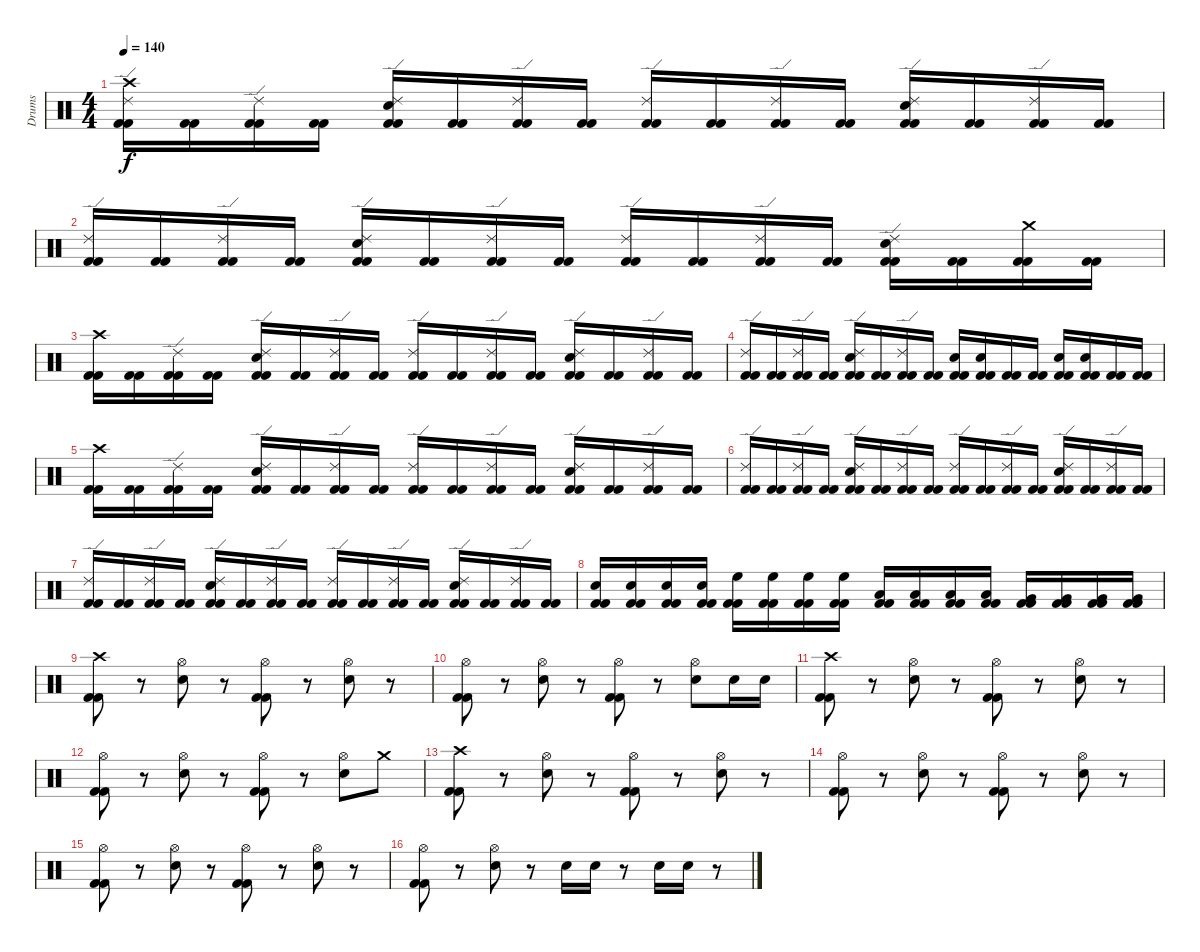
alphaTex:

\track ("Drums" "Drums") {instrument percussion}
\staff {score}
\articulation defaults
\ts (4 4)
\tempo 140
\clef neutral
\ks c
("Crash high (hit)" "Ride (edge) 2" "Kick (hit) 2" "Kick (hit) 2").16{dy f} ("Kick (hit) 2" "Kick (hit) 2").16 ("Ride (edge) 2" "Kick (hit) 2" "Kick (hit) 2").16 ("Kick (hit) 2" "Kick (hit) 2").16 ("Ride (edge) 2" "Electric Snare (hit)" "Kick (hit) 2" "Kick (hit) 2").16 ("Kick (hit) 2" "Kick (hit) 2").16 ("Ride (edge) 2" "Kick (hit) 2" "Kick (hit) 2").16 ("Kick (hit) 2" "Kick (hit) 2").16 ("Ride (edge) 2" "Kick (hit) 2" "Kick (hit) 2").16 ("Kick (hit) 2" "Kick (hit) 2").16 ("Ride (edge) 2" "Kick (hit) 2" "Kick (hit) 2").16 ("Kick (hit) 2" "Kick (hit) 2").16 ("Ride (edge) 2" "Electric Snare (hit)" "Kick (hit) 2" "Kick (hit) 2").16 ("Kick (hit) 2" "Kick (hit) 2").16 ("Ride (edge) 2" "Kick (hit) 2" "Kick (hit) 2").16 ("Kick (hit) 2" "Kick (hit) 2").16 |
("Ride (edge) 2" "Kick (hit) 2" "Kick (hit) 2").16 ("Kick (hit) 2" "Kick (hit) 2").16 ("Ride (edge) 2" "Kick (hit) 2" "Kick (hit) 2").16 ("Kick (hit) 2" "Kick (hit) 2").16 ("Ride (edge) 2" "Electric Snare (hit)" "Kick (hit) 2" "Kick (hit) 2").16 ("Kick (hit) 2" "Kick (hit) 2").16 ("Ride (edge) 2" "Kick (hit) 2" "Kick (hit) 2").16 ("Kick (hit) 2" "Kick (hit) 2").16 ("Ride (edge) 2" "Kick (hit) 2" "Kick (hit) 2").16 ("Kick (hit) 2" "Kick (hit) 2").16 ("Ride (edge) 2" "Kick (hit) 2" "Kick (hit) 2").16 ("Kick (hit) 2" "Kick (hit) 2").16 ("Ride (edge) 2" "Electric Snare (hit)" "Kick (hit) 2" "Kick (hit) 2").16 ("Kick (hit) 2" "Kick (hit) 2").16 ("Crash medium (hit)" "Kick (hit) 2" "Kick (hit) 2").16 ("Kick (hit) 2" "Kick (hit) 2").16 |
("Crash high (hit)" "Kick (hit) 2" "Kick (hit) 2").16 ("Kick (hit) 2" "Kick (hit) 2").16 ("Ride (edge) 2" "Kick (hit) 2" "Kick (hit) 2").16 ("Kick (hit) 2" "Kick (hit) 2").16 ("Ride (edge) 2" "Electric Snare (hit)" "Kick (hit) 2" "Kick (hit) 2").16 ("Kick (hit) 2" "Kick (hit) 2").16 ("Ride (edge) 2" "Kick (hit) 2" "Kick (hit) 2").16 ("Kick (hit) 2" "Kick (hit) 2").16 ("Ride (edge) 2" "Kick (hit) 2" "Kick (hit) 2").16 ("Kick (hit) 2" "Kick (hit) 2").16 ("Ride (edge) 2" "Kick (hit) 2" "Kick (hit) 2").16 ("Kick (hit) 2" "Kick (hit) 2").16 ("Ride (edge) 2" "Electric Snare (hit)" "Kick (hit) 2" "Kick (hit) 2").16 ("Kick (hit) 2" "Kick (hit) 2").16 ("Ride (edge) 2" "Kick (hit) 2" "Kick (hit) 2").16 ("Kick (hit) 2" "Kick (hit) 2").16 |
("Ride (edge) 2" "Kick (hit) 2" "Kick (hit) 2").16 ("Kick (hit) 2" "Kick (hit) 2").16 ("Ride (edge) 2" "Kick (hit) 2" "Kick (hit) 2").16 ("Kick (hit) 2" "Kick (hit) 2").16 ("Ride (edge) 2" "Electric Snare (hit)" "Kick (hit) 2" "Kick (hit) 2").16 ("Kick (hit) 2" "Kick (hit) 2").16 ("Ride (edge) 2" "Kick (hit) 2" "Kick (hit) 2").16 ("Kick (hit) 2" "Kick (hit) 2").16 ("Electric Snare (hit)" "Kick (hit) 2" "Kick (hit) 2").16 ("Electric Snare (hit)" "Kick (hit) 2" "Kick (hit) 2").16 ("Kick (hit) 2" "Kick (hit) 2").16 ("Kick (hit) 2" "Kick (hit) 2").16 ("Electric Snare (hit)" "Kick (hit) 2" "Kick (hit) 2").16 ("Electric Snare (hit)" "Kick (hit) 2" "Kick (hit) 2").16 ("Kick (hit) 2" "Kick (hit) 2").16 ("Kick (hit) 2" "Kick (hit) 2").16 |
("Crash high (hit)" "Kick (hit) 2" "Kick (hit) 2").16 ("Kick (hit) 2" "Kick (hit) 2").16 ("Ride (edge) 2" "Kick (hit) 2" "Kick (hit) 2").16 ("Kick (hit) 2" "Kick (hit) 2").16 ("Ride (edge) 2" "Electric Snare (hit)" "Kick (hit) 2" "Kick (hit) 2").16 ("Kick (hit) 2" "Kick (hit) 2").16 ("Ride (edge) 2" "Kick (hit) 2" "Kick (hit) 2").16 ("Kick (hit) 2" "Kick (hit) 2").16 ("Ride (edge) 2" "Kick (hit) 2" "Kick (hit) 2").16 ("Kick (hit) 2" "Kick (hit) 2").16 ("Ride (edge) 2" "Kick (hit) 2" "Kick (hit) 2").16 ("Kick (hit) 2" "Kick (hit) 2").16 ("Ride (edge) 2" "Electric Snare (hit)" "Kick (hit) 2" "Kick (hit) 2").16 ("Kick (hit) 2" "Kick (hit) 2").16 ("Ride (edge) 2" "Kick (hit) 2" "Kick (hit) 2").16 ("Kick (hit) 2" "Kick (hit) 2").16 |
("Ride (edge) 2" "Kick (hit) 2" "Kick (hit) 2").16 ("Kick (hit) 2" "Kick (hit) 2").16 ("Ride (edge) 2" "Kick (hit) 2" "Kick (hit) 2").16 ("Kick (hit) 2" "Kick (hit) 2").16 ("Ride (edge) 2" "Electric Snare (hit)" "Kick (hit) 2" "Kick (hit) 2").16 ("Kick (hit) 2" "Kick (hit) 2").16 ("Ride (edge) 2" "Kick (hit) 2" "Kick (hit) 2").16 ("Kick (hit) 2" "Kick (hit) 2").16 ("Ride (edge) 2" "Kick (hit) 2" "Kick (hit) 2").16 ("Kick (hit) 2" "Kick (hit) 2").16 ("Ride (edge) 2" "Kick (hit) 2" "Kick (hit) 2").16 ("Kick (hit) 2" "Kick (hit) 2").16 ("Ride (edge) 2" "Electric Snare (hit)" "Kick (hit) 2" "Kick (hit) 2").16 ("Kick (hit) 2" "Kick (hit) 2").16 ("Ride (edge) 2" "Kick (hit) 2" "Kick (hit) 2").16 ("Kick (hit) 2" "Kick (hit) 2").16 |
("Ride (edge) 2" "Kick (hit) 2" "Kick (hit) 2").16 ("Kick (hit) 2" "Kick (hit) 2").16 ("Ride (edge) 2" "Kick (hit) 2" "Kick (hit) 2").16 ("Kick (hit) 2" "Kick (hit) 2").16 ("Ride (edge) 2" "Electric Snare (hit)" "Kick (hit) 2" "Kick (hit) 2").16 ("Kick (hit) 2" "Kick (hit) 2").16 ("Ride (edge) 2" "Kick (hit) 2" "Kick (hit) 2").16 ("Kick (hit) 2" "Kick (hit) 2").16 ("Ride (edge) 2" "Kick (hit) 2" "Kick (hit) 2").16 ("Kick (hit) 2" "Kick (hit) 2").16 ("Ride (edge) 2" "Kick (hit) 2" "Kick (hit) 2").16 ("Kick (hit) 2" "Kick (hit) 2").16 ("Ride (edge) 2" "Electric Snare (hit)" "Kick (hit) 2" "Kick (hit) 2").16 ("Kick (hit) 2" "Kick (hit) 2").16 ("Ride (edge) 2" "Kick (hit) 2" "Kick (hit) 2").16 ("Kick (hit) 2" "Kick (hit) 2").16 |
("Electric Snare (hit)" "Kick (hit) 2" "Kick (hit) 2").16 ("Electric Snare (hit)" "Kick (hit) 2" "Kick (hit) 2").16 ("Electric Snare (hit)" "Kick (hit) 2" "Kick (hit) 2").16 ("Electric Snare (hit)" "Kick (hit) 2" "Kick (hit) 2").16 ("High Floor Tom (hit)" "Kick (hit) 2" "Kick (hit) 2").16 ("High Floor Tom (hit)" "Kick (hit) 2" "Kick (hit) 2").16 ("High Floor Tom (hit)" "Kick (hit) 2" "Kick (hit) 2").16 ("High Floor Tom (hit)" "Kick (hit) 2" "Kick (hit) 2").16 ("Low Tom (hit)" "Kick (hit) 2" "Kick (hit) 2").16 ("Low Tom (hit)" "Kick (hit) 2" "Kick (hit) 2").16 ("Low Tom (hit)" "Kick (hit) 2" "Kick (hit) 2").16 ("Low Tom (hit)" "Kick (hit) 2" "Kick (hit) 2").16 ("Very Low Tom (hit)" "Kick (hit) 2" "Kick (hit) 2").16 ("Very Low Tom (hit)" "Kick (hit) 2" "Kick (hit) 2").16 ("Very Low Tom (hit)" "Kick (hit) 2" "Kick (hit) 2").16 ("Very Low Tom (hit)" "Kick (hit) 2" "Kick (hit) 2").16 |
("Crash high (hit)" "Kick (hit) 2" "Kick (hit) 2").8 r.8 ("Hi-Hat (open)" "Electric Snare (hit)").8 r.8 ("Hi-Hat (open)" "Kick (hit) 2" "Kick (hit) 2").8 r.8 ("Hi-Hat (open)" "Electric Snare (hit)").8 r.8 |
("Hi-Hat (open)" "Kick (hit) 2" "Kick (hit) 2").8 r.8 ("Hi-Hat (open)" "Electric Snare (hit)").8 r.8 ("Hi-Hat (open)" "Kick (hit) 2" "Kick (hit) 2").8 r.8 ("Hi-Hat (open)" "Electric Snare (hit)").8 "Electric Snare (hit)".16 "Electric Snare (hit)".16 |
("Crash high (hit)" "Kick (hit) 2" "Kick (hit) 2").8 r.8 ("Hi-Hat (open)" "Electric Snare (hit)").8 r.8 ("Hi-Hat (open)" "Kick (hit) 2" "Kick (hit) 2").8 r.8 ("Hi-Hat (open)" "Electric Snare (hit)").8 r.8 |
("Hi-Hat (open)" "Kick (hit) 2" "Kick (hit) 2").8 r.8 ("Hi-Hat (open)" "Electric Snare (hit)").8 r.8 ("Hi-Hat (open)" "Kick (hit) 2" "Kick (hit) 2").8 r.8 ("Hi-Hat (open)" "Electric Snare (hit)").8 "Crash medium (hit)".8 |
("Crash high (hit)" "Kick (hit) 2" "Kick (hit) 2").8 r.8 ("Hi-Hat (open)" "Electric Snare (hit)").8 r.8 ("Hi-Hat (open)" "Kick (hit) 2" "Kick (hit) 2").8 r.8 ("Hi-Hat (open)" "Electric Snare (hit)").8 r.8 |
("Hi-Hat (open)" "Kick (hit) 2" "Kick (hit) 2").8 r.8 ("Hi-Hat (open)" "Electric Snare (hit)").8 r.8 ("Hi-Hat (open)" "Kick (hit) 2" "Kick (hit) 2").8 r.8 ("Hi-Hat (open)" "Electric Snare (hit)").8 r.8 |
("Hi-Hat (open)" "Kick (hit) 2" "Kick (hit) 2").8 r.8 ("Hi-Hat (open)" "Electric Snare (hit)").8 r.8 ("Hi-Hat (open)" "Kick (hit) 2" "Kick (hit) 2").8 r.8 ("Hi-Hat (open)" "Electric Snare (hit)").8 r.8 |
("Hi-Hat (open)" "Kick (hit) 2" "Kick (hit) 2").8 r.8 ("Hi-Hat (open)" "Electric Snare (hit)").8 r.8 "Electric Snare (hit)".16 "Electric Snare (hit)".16 r.8 "Electric Snare (hit)".16 "Electric Snare (hit)".16 r.8
